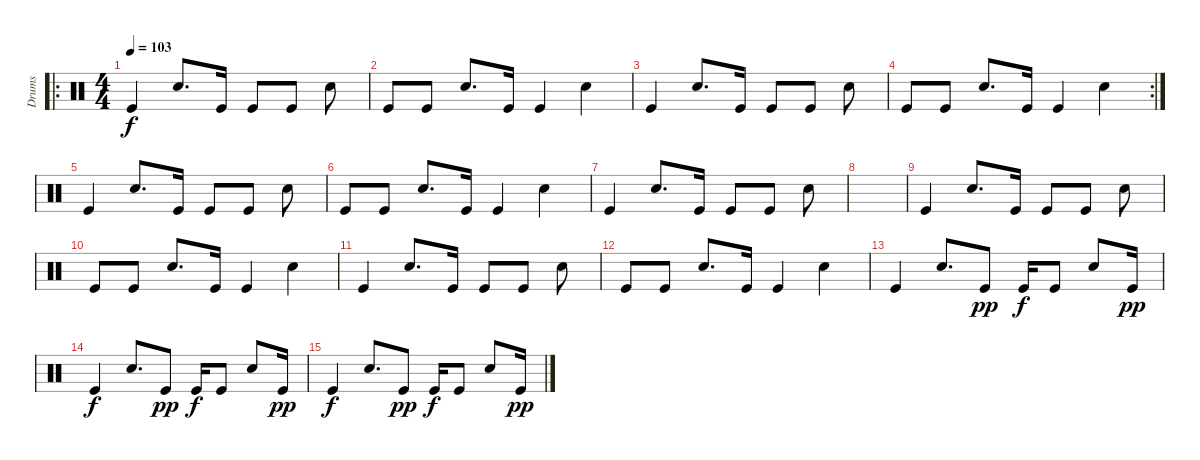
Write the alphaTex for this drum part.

\track ("Drums" "Drums") {instrument percussion}
\staff {score}
\articulation defaults
\ro
\ts (4 4)
\tempo 103
\clef neutral
\ks c "Kick (hit)".4{dy f} "Snare (hit) 2".8{d} "Kick (hit)".16 "Kick (hit)".8 "Kick (hit)".8 "Snare (hit) 2".8
|
"Kick (hit)".8 "Kick (hit)".8 "Snare (hit) 2".8{d} "Kick (hit)".16 "Kick (hit)".4 "Snare (hit) 2".4 |
"Kick (hit)".4 "Snare (hit) 2".8{d} "Kick (hit)".16 "Kick (hit)".8 "Kick (hit)".8 "Snare (hit) 2".8 |
\rc 2 "Kick (hit)".8 "Kick (hit)".8 "Snare (hit) 2".8{d} "Kick (hit)".16 "Kick (hit)".4 "Snare (hit) 2".4
|
"Kick (hit)".4 "Snare (hit) 2".8{d} "Kick (hit)".16 "Kick (hit)".8 "Kick (hit)".8 "Snare (hit) 2".8 |
"Kick (hit)".8 "Kick (hit)".8 "Snare (hit) 2".8{d} "Kick (hit)".16 "Kick (hit)".4 "Snare (hit) 2".4 |
"Kick (hit)".4 "Snare (hit) 2".8{d} "Kick (hit)".16 "Kick (hit)".8 "Kick (hit)".8 "Snare (hit) 2".8 |
|
"Kick (hit)".4 "Snare (hit) 2".8{d} "Kick (hit)".16 "Kick (hit)".8 "Kick (hit)".8 "Snare (hit) 2".8 |
"Kick (hit)".8 "Kick (hit)".8 "Snare (hit) 2".8{d} "Kick (hit)".16 "Kick (hit)".4 "Snare (hit) 2".4 |
"Kick (hit)".4 "Snare (hit) 2".8{d} "Kick (hit)".16 "Kick (hit)".8 "Kick (hit)".8 "Snare (hit) 2".8 |
"Kick (hit)".8 "Kick (hit)".8 "Snare (hit) 2".8{d} "Kick (hit)".16 "Kick (hit)".4 "Snare (hit) 2".4 |
"Kick (hit)".4 "Snare (hit) 2".8{d} "Kick (hit)".8{dy pp} "Kick (hit)".16{dy f} "Kick (hit)".8 "Snare (hit) 2".8 "Kick (hit)".16{dy pp} |
"Kick (hit)".4{dy f} "Snare (hit) 2".8{d} "Kick (hit)".8{dy pp} "Kick (hit)".16{dy f} "Kick (hit)".8 "Snare (hit) 2".8 "Kick (hit)".16{dy pp} |
"Kick (hit)".4{dy f} "Snare (hit) 2".8{d} "Kick (hit)".8{dy pp} "Kick (hit)".16{dy f} "Kick (hit)".8 "Snare (hit) 2".8 "Kick (hit)".16{dy pp}
